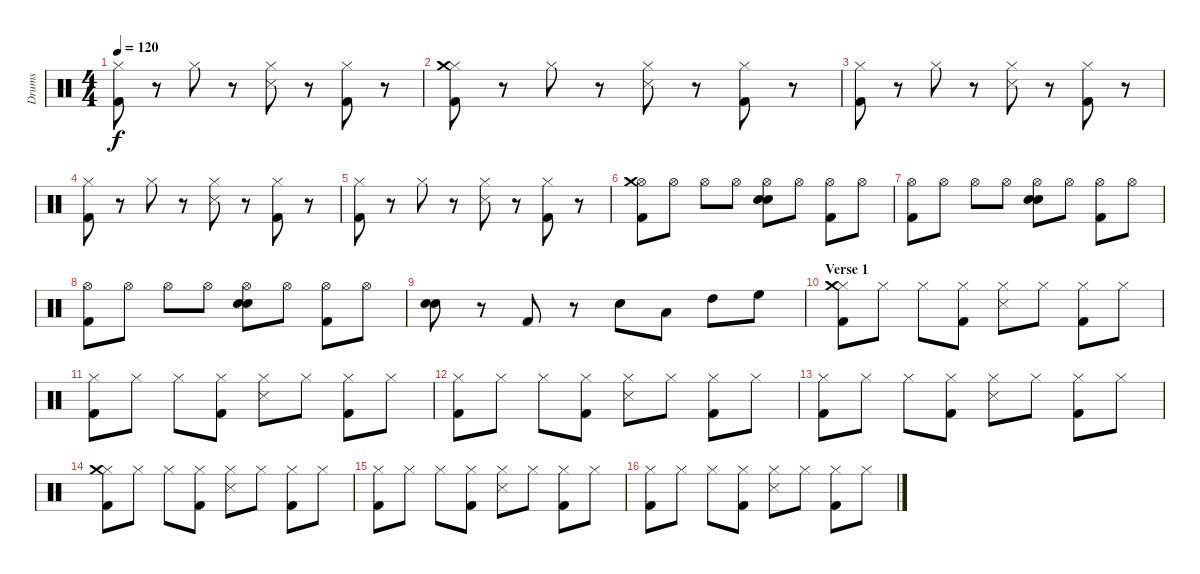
\track ("Drums" "Drums") {instrument percussion}
\staff {score}
\articulation defaults
\ts (4 4)
\tempo 120
\clef neutral
\ks c
("Hi-Hat (closed)" "Kick (hit) 2").8{dy f} r.8 "Hi-Hat (closed)".8 r.8 ("Hi-Hat (closed)" "Snare (side stick) 3").8 r.8 ("Hi-Hat (closed)" "Kick (hit) 2").8 r.8 |
("Hi-Hat (closed)" "Kick (hit) 2" "Crash medium (hit)").8 r.8 "Hi-Hat (closed)".8 r.8 ("Hi-Hat (closed)" "Snare (side stick) 3").8 r.8 ("Hi-Hat (closed)" "Kick (hit) 2").8 r.8 |
("Hi-Hat (closed)" "Kick (hit) 2").8 r.8 "Hi-Hat (closed)".8 r.8 ("Hi-Hat (closed)" "Snare (side stick) 3").8 r.8 ("Hi-Hat (closed)" "Kick (hit) 2").8 r.8 |
("Hi-Hat (closed)" "Kick (hit) 2").8 r.8 "Hi-Hat (closed)".8 r.8 ("Hi-Hat (closed)" "Snare (side stick) 3").8 r.8 ("Hi-Hat (closed)" "Kick (hit) 2").8 r.8 |
("Hi-Hat (closed)" "Kick (hit) 2").8 r.8 "Hi-Hat (closed)".8 r.8 ("Hi-Hat (closed)" "Snare (side stick) 3").8 r.8 ("Hi-Hat (closed)" "Kick (hit) 2").8 r.8 |
("Hi-Hat (open)" "Kick (hit) 2" "Crash medium (hit)").8 "Hi-Hat (open)".8 "Hi-Hat (open)".8 "Hi-Hat (open)".8 ("Hi-Hat (open)" "Snare (hit) 2" "Electric Snare (hit)").8 "Hi-Hat (open)".8 ("Hi-Hat (open)" "Kick (hit) 2").8 "Hi-Hat (open)".8 |
("Hi-Hat (open)" "Kick (hit) 2").8 "Hi-Hat (open)".8 "Hi-Hat (open)".8 "Hi-Hat (open)".8 ("Hi-Hat (open)" "Snare (hit) 2" "Electric Snare (hit)").8 "Hi-Hat (open)".8 ("Hi-Hat (open)" "Kick (hit) 2").8 "Hi-Hat (open)".8 |
("Hi-Hat (open)" "Kick (hit) 2").8 "Hi-Hat (open)".8 "Hi-Hat (open)".8 "Hi-Hat (open)".8 ("Hi-Hat (open)" "Snare (hit) 2" "Electric Snare (hit)").8 "Hi-Hat (open)".8 ("Hi-Hat (open)" "Kick (hit) 2").8 "Hi-Hat (open)".8 |
("Snare (hit) 2" "Electric Snare (hit)").8 r.8 "Kick (hit) 2".8 r.8 "Snare (hit) 2".8 "Low Tom (hit)".8 "High Tom (hit)".8 "High Floor Tom (hit)".8 |
\section ("" "Verse 1")
("Hi-Hat (closed)" "Kick (hit) 2" "Crash medium (hit)").8 "Hi-Hat (closed)".8 "Hi-Hat (closed)".8 ("Hi-Hat (closed)" "Kick (hit) 2").8 ("Hi-Hat (closed)" "Snare (side stick) 3").8 "Hi-Hat (closed)".8 ("Hi-Hat (closed)" "Kick (hit) 2").8 "Hi-Hat (closed)".8 |
("Hi-Hat (closed)" "Kick (hit) 2").8 "Hi-Hat (closed)".8 "Hi-Hat (closed)".8 ("Hi-Hat (closed)" "Kick (hit) 2").8 ("Hi-Hat (closed)" "Snare (side stick) 3").8 "Hi-Hat (closed)".8 ("Hi-Hat (closed)" "Kick (hit) 2").8 "Hi-Hat (closed)".8 |
("Hi-Hat (closed)" "Kick (hit) 2").8 "Hi-Hat (closed)".8 "Hi-Hat (closed)".8 ("Hi-Hat (closed)" "Kick (hit) 2").8 ("Hi-Hat (closed)" "Snare (side stick) 3").8 "Hi-Hat (closed)".8 ("Hi-Hat (closed)" "Kick (hit) 2").8 "Hi-Hat (closed)".8 |
("Hi-Hat (closed)" "Kick (hit) 2").8 "Hi-Hat (closed)".8 "Hi-Hat (closed)".8 ("Hi-Hat (closed)" "Kick (hit) 2").8 ("Hi-Hat (closed)" "Snare (side stick) 3").8 "Hi-Hat (closed)".8 ("Hi-Hat (closed)" "Kick (hit) 2").8 "Hi-Hat (closed)".8 |
("Hi-Hat (closed)" "Kick (hit) 2" "Crash medium (hit)").8 "Hi-Hat (closed)".8 "Hi-Hat (closed)".8 ("Hi-Hat (closed)" "Kick (hit) 2").8 ("Hi-Hat (closed)" "Snare (side stick) 3").8 "Hi-Hat (closed)".8 ("Hi-Hat (closed)" "Kick (hit) 2").8 "Hi-Hat (closed)".8 |
("Hi-Hat (closed)" "Kick (hit) 2").8 "Hi-Hat (closed)".8 "Hi-Hat (closed)".8 ("Hi-Hat (closed)" "Kick (hit) 2").8 ("Hi-Hat (closed)" "Snare (side stick) 3").8 "Hi-Hat (closed)".8 ("Hi-Hat (closed)" "Kick (hit) 2").8 "Hi-Hat (closed)".8 |
("Hi-Hat (closed)" "Kick (hit) 2").8 "Hi-Hat (closed)".8 "Hi-Hat (closed)".8 ("Hi-Hat (closed)" "Kick (hit) 2").8 ("Hi-Hat (closed)" "Snare (side stick) 3").8 "Hi-Hat (closed)".8 ("Hi-Hat (closed)" "Kick (hit) 2").8 "Hi-Hat (closed)".8
